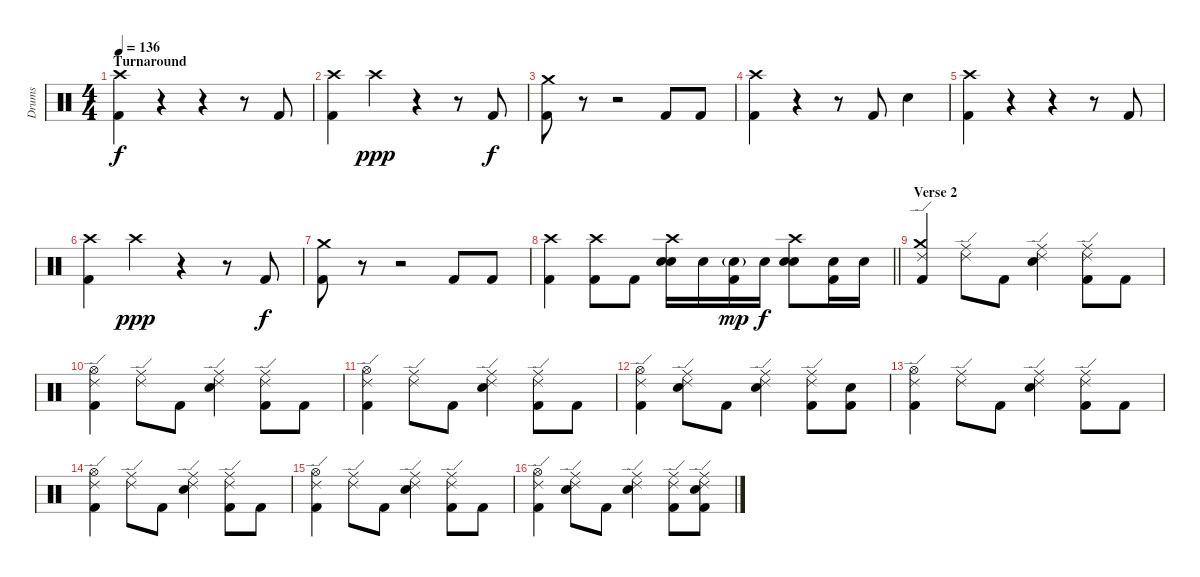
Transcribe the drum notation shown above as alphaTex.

\track ("Drums" "Drums") {instrument percussion}
\staff {score}
\articulation defaults
\ts (4 4)
\section ("" "Turnaround")
\tempo 136
\clef neutral
\ks c
("Crash high (hit)" "Kick (hit) 2").4{dy f} r.4 r.4 r.8 "Kick (hit) 2".8 |
("Crash high (hit)" "Kick (hit) 2").4 "Crash high (hit)".4{dy ppp} r.4 r.8 "Kick (hit) 2".8{dy f} |
("Crash medium (hit)" "Kick (hit) 2").8 r.8 r.2 "Kick (hit) 2".8 "Kick (hit) 2".8 |
("Crash high (hit)" "Kick (hit) 2").4 r.4 r.8 "Kick (hit) 2".8 "Snare (hit) 2".4 |
("Crash high (hit)" "Kick (hit) 2").4 r.4 r.4 r.8 "Kick (hit) 2".8 |
("Crash high (hit)" "Kick (hit) 2").4 "Crash high (hit)".4{dy ppp} r.4 r.8 "Kick (hit) 2".8{dy f} |
("Crash medium (hit)" "Kick (hit) 2").8 r.8 r.2 "Kick (hit) 2".8 "Kick (hit) 2".8 |
\barLineRight lightlight
("Crash high (hit)" "Kick (hit) 2").4 ("Crash high (hit)" "Kick (hit) 2").8 "Kick (hit) 2".8 ("Crash high (hit)" "Electric Snare (hit)" "Snare (hit) 2").16 "Snare (hit) 2".16 ("Snare (hit) 2"{g} "Kick (hit) 2").16{dy mp} "Snare (hit) 2".16{dy f} ("Crash high (hit)" "Electric Snare (hit)" "Snare (hit) 2").8 ("Snare (hit) 2" "Kick (hit) 2").16 "Snare (hit) 2".16 |
\section ("" "Verse 2")
("Crash medium (hit)" "Ride (edge) 2" "Kick (hit) 2").4 ("Ride (middle)" "Ride (edge) 2").8 "Kick (hit) 2".8 ("Ride (middle)" "Ride (edge) 2" "Snare (hit) 2").4 ("Ride (middle)" "Ride (edge) 2" "Kick (hit) 2").8 "Kick (hit) 2".8 |
("Hi-Hat (open)" "Ride (edge) 2" "Kick (hit) 2").4 ("Ride (middle)" "Ride (edge) 2").8 "Kick (hit) 2".8 ("Ride (middle)" "Ride (edge) 2" "Snare (hit) 2").4 ("Ride (middle)" "Ride (edge) 2" "Kick (hit) 2").8 "Kick (hit) 2".8 |
("Hi-Hat (open)" "Ride (edge) 2" "Kick (hit) 2").4 ("Ride (middle)" "Ride (edge) 2").8 "Kick (hit) 2".8 ("Ride (middle)" "Ride (edge) 2" "Snare (hit) 2").4 ("Ride (middle)" "Ride (edge) 2" "Kick (hit) 2").8 "Kick (hit) 2".8 |
("Hi-Hat (open)" "Ride (edge) 2" "Kick (hit) 2").4 ("Ride (middle)" "Ride (edge) 2" "Snare (hit) 2").8 "Kick (hit) 2".8 ("Ride (middle)" "Ride (edge) 2" "Snare (hit) 2").4 ("Ride (middle)" "Ride (edge) 2" "Kick (hit) 2").8 ("Snare (hit) 2" "Kick (hit) 2").8 |
("Hi-Hat (open)" "Ride (edge) 2" "Kick (hit) 2").4 ("Ride (middle)" "Ride (edge) 2").8 "Kick (hit) 2".8 ("Ride (middle)" "Ride (edge) 2" "Snare (hit) 2").4 ("Ride (middle)" "Ride (edge) 2" "Kick (hit) 2").8 "Kick (hit) 2".8 |
("Hi-Hat (open)" "Ride (edge) 2" "Kick (hit) 2").4 ("Ride (middle)" "Ride (edge) 2").8 "Kick (hit) 2".8 ("Ride (middle)" "Ride (edge) 2" "Snare (hit) 2").4 ("Ride (middle)" "Ride (edge) 2" "Kick (hit) 2").8 "Kick (hit) 2".8 |
("Hi-Hat (open)" "Ride (edge) 2" "Kick (hit) 2").4 ("Ride (middle)" "Ride (edge) 2").8 "Kick (hit) 2".8 ("Ride (middle)" "Ride (edge) 2" "Snare (hit) 2").4 ("Ride (middle)" "Ride (edge) 2" "Kick (hit) 2").8 "Kick (hit) 2".8 |
("Hi-Hat (open)" "Ride (edge) 2" "Kick (hit) 2").4 ("Ride (middle)" "Ride (edge) 2" "Snare (hit) 2").8 "Kick (hit) 2".8 ("Ride (middle)" "Ride (edge) 2" "Snare (hit) 2").4 ("Ride (middle)" "Ride (edge) 2" "Kick (hit) 2").8 ("Ride (middle)" "Ride (edge) 2" "Snare (hit) 2" "Kick (hit) 2").8
